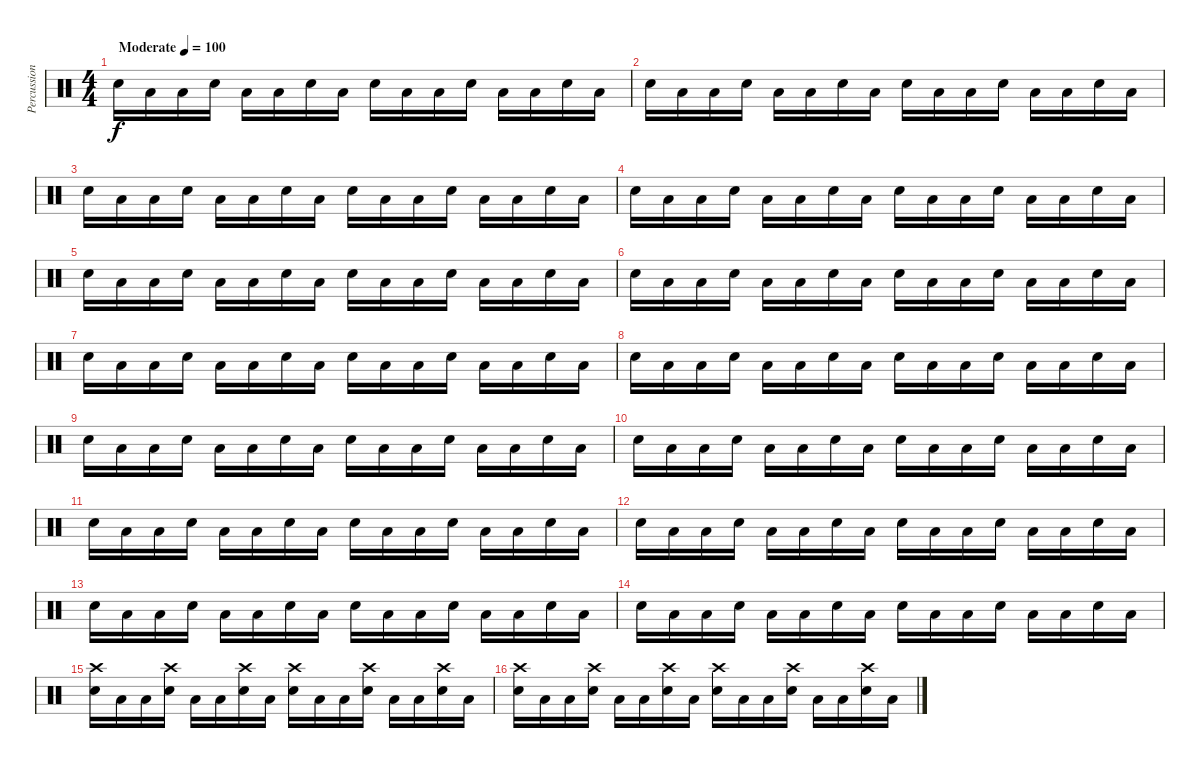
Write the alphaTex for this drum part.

\track ("Percussion" "Percussion") {instrument percussion}
\staff {score}
\articulation defaults
\ts (4 4)
\tempo (100 "Moderate")
\clef neutral
\ks c "Electric Snare (hit)".16{dy f} "Low Floor Tom (hit)".16 "Low Floor Tom (hit)".16 "Electric Snare (hit)".16 "Low Floor Tom (hit)".16 "Low Floor Tom (hit)".16 "Electric Snare (hit)".16 "Low Floor Tom (hit)".16 "Electric Snare (hit)".16 "Low Floor Tom (hit)".16 "Low Floor Tom (hit)".16 "Electric Snare (hit)".16 "Low Floor Tom (hit)".16 "Low Floor Tom (hit)".16 "Electric Snare (hit)".16 "Low Floor Tom (hit)".16
|
"Electric Snare (hit)".16 "Low Floor Tom (hit)".16 "Low Floor Tom (hit)".16 "Electric Snare (hit)".16 "Low Floor Tom (hit)".16 "Low Floor Tom (hit)".16 "Electric Snare (hit)".16 "Low Floor Tom (hit)".16 "Electric Snare (hit)".16 "Low Floor Tom (hit)".16 "Low Floor Tom (hit)".16 "Electric Snare (hit)".16 "Low Floor Tom (hit)".16 "Low Floor Tom (hit)".16 "Electric Snare (hit)".16 "Low Floor Tom (hit)".16 |
"Electric Snare (hit)".16 "Low Floor Tom (hit)".16 "Low Floor Tom (hit)".16 "Electric Snare (hit)".16 "Low Floor Tom (hit)".16 "Low Floor Tom (hit)".16 "Electric Snare (hit)".16 "Low Floor Tom (hit)".16 "Electric Snare (hit)".16 "Low Floor Tom (hit)".16 "Low Floor Tom (hit)".16 "Electric Snare (hit)".16 "Low Floor Tom (hit)".16 "Low Floor Tom (hit)".16 "Electric Snare (hit)".16 "Low Floor Tom (hit)".16 |
"Electric Snare (hit)".16 "Low Floor Tom (hit)".16 "Low Floor Tom (hit)".16 "Electric Snare (hit)".16 "Low Floor Tom (hit)".16 "Low Floor Tom (hit)".16 "Electric Snare (hit)".16 "Low Floor Tom (hit)".16 "Electric Snare (hit)".16 "Low Floor Tom (hit)".16 "Low Floor Tom (hit)".16 "Electric Snare (hit)".16 "Low Floor Tom (hit)".16 "Low Floor Tom (hit)".16 "Electric Snare (hit)".16 "Low Floor Tom (hit)".16 |
"Electric Snare (hit)".16 "Low Floor Tom (hit)".16 "Low Floor Tom (hit)".16 "Electric Snare (hit)".16 "Low Floor Tom (hit)".16 "Low Floor Tom (hit)".16 "Electric Snare (hit)".16 "Low Floor Tom (hit)".16 "Electric Snare (hit)".16 "Low Floor Tom (hit)".16 "Low Floor Tom (hit)".16 "Electric Snare (hit)".16 "Low Floor Tom (hit)".16 "Low Floor Tom (hit)".16 "Electric Snare (hit)".16 "Low Floor Tom (hit)".16 |
"Electric Snare (hit)".16 "Low Floor Tom (hit)".16 "Low Floor Tom (hit)".16 "Electric Snare (hit)".16 "Low Floor Tom (hit)".16 "Low Floor Tom (hit)".16 "Electric Snare (hit)".16 "Low Floor Tom (hit)".16 "Electric Snare (hit)".16 "Low Floor Tom (hit)".16 "Low Floor Tom (hit)".16 "Electric Snare (hit)".16 "Low Floor Tom (hit)".16 "Low Floor Tom (hit)".16 "Electric Snare (hit)".16 "Low Floor Tom (hit)".16 |
"Electric Snare (hit)".16 "Low Floor Tom (hit)".16 "Low Floor Tom (hit)".16 "Electric Snare (hit)".16 "Low Floor Tom (hit)".16 "Low Floor Tom (hit)".16 "Electric Snare (hit)".16 "Low Floor Tom (hit)".16 "Electric Snare (hit)".16 "Low Floor Tom (hit)".16 "Low Floor Tom (hit)".16 "Electric Snare (hit)".16 "Low Floor Tom (hit)".16 "Low Floor Tom (hit)".16 "Electric Snare (hit)".16 "Low Floor Tom (hit)".16 |
"Electric Snare (hit)".16 "Low Floor Tom (hit)".16 "Low Floor Tom (hit)".16 "Electric Snare (hit)".16 "Low Floor Tom (hit)".16 "Low Floor Tom (hit)".16 "Electric Snare (hit)".16 "Low Floor Tom (hit)".16 "Electric Snare (hit)".16 "Low Floor Tom (hit)".16 "Low Floor Tom (hit)".16 "Electric Snare (hit)".16 "Low Floor Tom (hit)".16 "Low Floor Tom (hit)".16 "Electric Snare (hit)".16 "Low Floor Tom (hit)".16 |
"Electric Snare (hit)".16 "Low Floor Tom (hit)".16 "Low Floor Tom (hit)".16 "Electric Snare (hit)".16 "Low Floor Tom (hit)".16 "Low Floor Tom (hit)".16 "Electric Snare (hit)".16 "Low Floor Tom (hit)".16 "Electric Snare (hit)".16 "Low Floor Tom (hit)".16 "Low Floor Tom (hit)".16 "Electric Snare (hit)".16 "Low Floor Tom (hit)".16 "Low Floor Tom (hit)".16 "Electric Snare (hit)".16 "Low Floor Tom (hit)".16 |
"Electric Snare (hit)".16 "Low Floor Tom (hit)".16 "Low Floor Tom (hit)".16 "Electric Snare (hit)".16 "Low Floor Tom (hit)".16 "Low Floor Tom (hit)".16 "Electric Snare (hit)".16 "Low Floor Tom (hit)".16 "Electric Snare (hit)".16 "Low Floor Tom (hit)".16 "Low Floor Tom (hit)".16 "Electric Snare (hit)".16 "Low Floor Tom (hit)".16 "Low Floor Tom (hit)".16 "Electric Snare (hit)".16 "Low Floor Tom (hit)".16 |
"Electric Snare (hit)".16 "Low Floor Tom (hit)".16 "Low Floor Tom (hit)".16 "Electric Snare (hit)".16 "Low Floor Tom (hit)".16 "Low Floor Tom (hit)".16 "Electric Snare (hit)".16 "Low Floor Tom (hit)".16 "Electric Snare (hit)".16 "Low Floor Tom (hit)".16 "Low Floor Tom (hit)".16 "Electric Snare (hit)".16 "Low Floor Tom (hit)".16 "Low Floor Tom (hit)".16 "Electric Snare (hit)".16 "Low Floor Tom (hit)".16 |
"Electric Snare (hit)".16 "Low Floor Tom (hit)".16 "Low Floor Tom (hit)".16 "Electric Snare (hit)".16 "Low Floor Tom (hit)".16 "Low Floor Tom (hit)".16 "Electric Snare (hit)".16 "Low Floor Tom (hit)".16 "Electric Snare (hit)".16 "Low Floor Tom (hit)".16 "Low Floor Tom (hit)".16 "Electric Snare (hit)".16 "Low Floor Tom (hit)".16 "Low Floor Tom (hit)".16 "Electric Snare (hit)".16 "Low Floor Tom (hit)".16 |
"Electric Snare (hit)".16 "Low Floor Tom (hit)".16 "Low Floor Tom (hit)".16 "Electric Snare (hit)".16 "Low Floor Tom (hit)".16 "Low Floor Tom (hit)".16 "Electric Snare (hit)".16 "Low Floor Tom (hit)".16 "Electric Snare (hit)".16 "Low Floor Tom (hit)".16 "Low Floor Tom (hit)".16 "Electric Snare (hit)".16 "Low Floor Tom (hit)".16 "Low Floor Tom (hit)".16 "Electric Snare (hit)".16 "Low Floor Tom (hit)".16 |
"Electric Snare (hit)".16 "Low Floor Tom (hit)".16 "Low Floor Tom (hit)".16 "Electric Snare (hit)".16 "Low Floor Tom (hit)".16 "Low Floor Tom (hit)".16 "Electric Snare (hit)".16 "Low Floor Tom (hit)".16 "Electric Snare (hit)".16 "Low Floor Tom (hit)".16 "Low Floor Tom (hit)".16 "Electric Snare (hit)".16 "Low Floor Tom (hit)".16 "Low Floor Tom (hit)".16 "Electric Snare (hit)".16 "Low Floor Tom (hit)".16 |
("Crash high (hit)" "Electric Snare (hit)").16 "Low Floor Tom (hit)".16 "Low Floor Tom (hit)".16 ("Crash high (hit)" "Electric Snare (hit)").16 "Low Floor Tom (hit)".16 "Low Floor Tom (hit)".16 ("Crash high (hit)" "Electric Snare (hit)").16 "Low Floor Tom (hit)".16 ("Crash high (hit)" "Electric Snare (hit)").16 "Low Floor Tom (hit)".16 "Low Floor Tom (hit)".16 ("Crash high (hit)" "Electric Snare (hit)").16 "Low Floor Tom (hit)".16 "Low Floor Tom (hit)".16 ("Crash high (hit)" "Electric Snare (hit)").16 "Low Floor Tom (hit)".16 |
("Crash high (hit)" "Electric Snare (hit)").16 "Low Floor Tom (hit)".16 "Low Floor Tom (hit)".16 ("Crash high (hit)" "Electric Snare (hit)").16 "Low Floor Tom (hit)".16 "Low Floor Tom (hit)".16 ("Crash high (hit)" "Electric Snare (hit)").16 "Low Floor Tom (hit)".16 ("Crash high (hit)" "Electric Snare (hit)").16 "Low Floor Tom (hit)".16 "Low Floor Tom (hit)".16 ("Crash high (hit)" "Electric Snare (hit)").16 "Low Floor Tom (hit)".16 "Low Floor Tom (hit)".16 ("Crash high (hit)" "Electric Snare (hit)").16 "Low Floor Tom (hit)".16
